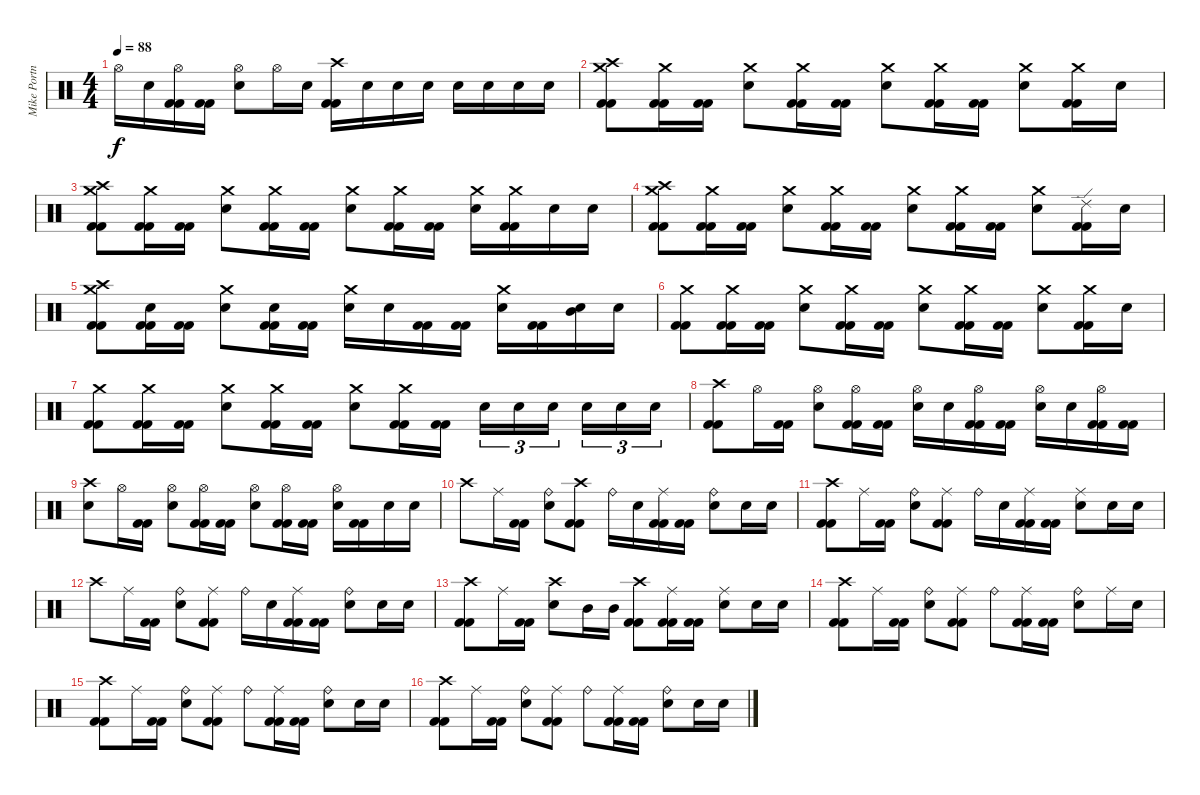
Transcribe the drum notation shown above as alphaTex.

\track ("Mike Portnoy" "Mike Portn") {instrument percussion}
\staff {score}
\articulation defaults
\ts (4 4)
\tempo 88
\clef neutral
\ks c "Hi-Hat (open)".16{dy f} "Snare (hit) 2".16
("Hi-Hat (open)" "Kick (hit) 2" "Kick (hit) 2").16 ("Kick (hit) 2" "Kick (hit) 2").16 ("Hi-Hat (open)" "Snare (hit) 2").8 "Hi-Hat (open)".16 "Snare (hit) 2".16 ("Crash high (hit)" "Kick (hit) 2" "Kick (hit) 2").16 "Snare (hit) 2".16 "Snare (hit) 2".16 "Snare (hit) 2".16 "Snare (hit) 2".16 "Snare (hit) 2".16 "Snare (hit) 2".16 "Snare (hit) 2".16 |
("Crash medium (hit)" "Crash high (hit)" "Kick (hit) 2" "Kick (hit) 2").8 ("Crash medium (hit)" "Kick (hit) 2" "Kick (hit) 2").16 ("Kick (hit) 2" "Kick (hit) 2").16 ("Crash medium (hit)" "Snare (hit) 2").8 ("Crash medium (hit)" "Kick (hit) 2" "Kick (hit) 2").16 ("Kick (hit) 2" "Kick (hit) 2").16 ("Crash medium (hit)" "Snare (hit) 2").8 ("Crash medium (hit)" "Kick (hit) 2" "Kick (hit) 2").16 ("Kick (hit) 2" "Kick (hit) 2").16 ("Crash medium (hit)" "Snare (hit) 2").8 ("Crash medium (hit)" "Kick (hit) 2" "Kick (hit) 2").16 "Snare (hit) 2".16 |
("Crash medium (hit)" "Crash high (hit)" "Kick (hit) 2" "Kick (hit) 2").8 ("Crash medium (hit)" "Kick (hit) 2" "Kick (hit) 2").16 ("Kick (hit) 2" "Kick (hit) 2").16 ("Crash medium (hit)" "Snare (hit) 2").8 ("Crash medium (hit)" "Kick (hit) 2" "Kick (hit) 2").16 ("Kick (hit) 2" "Kick (hit) 2").16 ("Crash medium (hit)" "Snare (hit) 2").8 ("Crash medium (hit)" "Kick (hit) 2" "Kick (hit) 2").16 ("Kick (hit) 2" "Kick (hit) 2").16 ("Crash medium (hit)" "Snare (hit) 2").16 ("Crash medium (hit)" "Kick (hit) 2" "Kick (hit) 2").16 "Snare (hit) 2".16 "Snare (hit) 2".16 |
("Crash medium (hit)" "Crash high (hit)" "Kick (hit) 2" "Kick (hit) 2").8 ("Crash medium (hit)" "Kick (hit) 2" "Kick (hit) 2").16 ("Kick (hit) 2" "Kick (hit) 2").16 ("Crash medium (hit)" "Snare (hit) 2").8 ("Crash medium (hit)" "Kick (hit) 2" "Kick (hit) 2").16 ("Kick (hit) 2" "Kick (hit) 2").16 ("Crash medium (hit)" "Snare (hit) 2").8 ("Crash medium (hit)" "Kick (hit) 2" "Kick (hit) 2").16 ("Kick (hit) 2" "Kick (hit) 2").16 ("Crash medium (hit)" "Snare (hit) 2").8 ("Ride (edge) 2" "Kick (hit) 2" "Kick (hit) 2").16 "Snare (hit) 2".16 |
("Crash medium (hit)" "Crash high (hit)" "Kick (hit) 2" "Kick (hit) 2").8 ("Snare (hit) 2" "Kick (hit) 2" "Kick (hit) 2").16 ("Kick (hit) 2" "Kick (hit) 2").16 ("Crash medium (hit)" "Snare (hit) 2").8 ("Snare (hit) 2" "Kick (hit) 2" "Kick (hit) 2").16 ("Kick (hit) 2" "Kick (hit) 2").16 ("Crash medium (hit)" "Snare (hit) 2").16 "Snare (hit) 2".16 ("Kick (hit) 2" "Kick (hit) 2").16 ("Kick (hit) 2" "Kick (hit) 2").16 ("Crash medium (hit)" "Snare (hit) 2").16 ("Kick (hit) 2" "Kick (hit) 2").16 ("Snare (hit) 2" "Mid Tom (hit)").16 "Snare (hit) 2".16 |
("Crash medium (hit)" "Kick (hit) 2" "Kick (hit) 2").8 ("Crash medium (hit)" "Kick (hit) 2" "Kick (hit) 2").16 ("Kick (hit) 2" "Kick (hit) 2").16 ("Crash medium (hit)" "Snare (hit) 2").8 ("Crash medium (hit)" "Kick (hit) 2" "Kick (hit) 2").16 ("Kick (hit) 2" "Kick (hit) 2").16 ("Crash medium (hit)" "Snare (hit) 2").8 ("Crash medium (hit)" "Kick (hit) 2" "Kick (hit) 2").16 ("Kick (hit) 2" "Kick (hit) 2").16 ("Crash medium (hit)" "Snare (hit) 2").8 ("Crash medium (hit)" "Kick (hit) 2" "Kick (hit) 2").16 "Snare (hit) 2".16 |
("Crash medium (hit)" "Kick (hit) 2" "Kick (hit) 2").8 ("Crash medium (hit)" "Kick (hit) 2" "Kick (hit) 2").16 ("Kick (hit) 2" "Kick (hit) 2").16 ("Crash medium (hit)" "Snare (hit) 2").8 ("Crash medium (hit)" "Kick (hit) 2" "Kick (hit) 2").16 ("Kick (hit) 2" "Kick (hit) 2").16 ("Crash medium (hit)" "Snare (hit) 2").8 ("Crash medium (hit)" "Kick (hit) 2" "Kick (hit) 2").16 ("Kick (hit) 2" "Kick (hit) 2").16 "Snare (hit) 2".16{tu (3 2)} "Snare (hit) 2".16{tu (3 2)} "Snare (hit) 2".16{tu (3 2)} "Snare (hit) 2".16{tu (3 2)} "Snare (hit) 2".16{tu (3 2)} "Snare (hit) 2".16{tu (3 2)} |
("Crash high (hit)" "Kick (hit) 2" "Kick (hit) 2").8 "Hi-Hat (open)".16 ("Kick (hit) 2" "Kick (hit) 2").16 ("Hi-Hat (open)" "Snare (hit) 2").8 ("Hi-Hat (open)" "Kick (hit) 2" "Kick (hit) 2").16 ("Kick (hit) 2" "Kick (hit) 2").16 ("Hi-Hat (open)" "Snare (hit) 2").16 "Snare (hit) 2".16 ("Hi-Hat (open)" "Kick (hit) 2" "Kick (hit) 2").16 ("Kick (hit) 2" "Kick (hit) 2").16 ("Hi-Hat (open)" "Snare (hit) 2").16 "Snare (hit) 2".16 ("Hi-Hat (open)" "Kick (hit) 2" "Kick (hit) 2").16 ("Kick (hit) 2" "Kick (hit) 2").16 |
("Crash high (hit)" "Snare (hit) 2").8 "Hi-Hat (open)".16 ("Kick (hit) 2" "Kick (hit) 2").16 ("Hi-Hat (open)" "Snare (hit) 2").8 ("Hi-Hat (open)" "Kick (hit) 2" "Kick (hit) 2").16 ("Kick (hit) 2" "Kick (hit) 2").16 ("Hi-Hat (open)" "Snare (hit) 2").8 ("Hi-Hat (open)" "Kick (hit) 2" "Kick (hit) 2").16 ("Kick (hit) 2" "Kick (hit) 2").16 ("Hi-Hat (open)" "Snare (hit) 2").16 ("Kick (hit) 2" "Kick (hit) 2").16 "Snare (hit) 2".16 "Snare (hit) 2".16 |
"Crash high (hit)".8 "Ride (middle)".16 ("Kick (hit) 2" "Kick (hit) 2").16 ("Ride (bell)" "Snare (hit) 2").8 ("Crash high (hit)" "Kick (hit) 2" "Kick (hit) 2").8 "Ride (bell)".16 "Snare (hit) 2".16 ("Ride (middle)" "Kick (hit) 2" "Kick (hit) 2").16 ("Kick (hit) 2" "Kick (hit) 2").16 ("Ride (bell)" "Snare (hit) 2").8 "Snare (hit) 2".16 "Snare (hit) 2".16 |
("Crash high (hit)" "Kick (hit) 2" "Kick (hit) 2").8 "Ride (middle)".16 ("Kick (hit) 2" "Kick (hit) 2").16 ("Ride (bell)" "Snare (hit) 2").8 ("Ride (middle)" "Kick (hit) 2" "Kick (hit) 2").8 "Ride (bell)".16 "Snare (hit) 2".16 ("Ride (middle)" "Kick (hit) 2" "Kick (hit) 2").16 ("Kick (hit) 2" "Kick (hit) 2").16 ("Ride (middle)" "Snare (hit) 2").8 "Snare (hit) 2".16 "Snare (hit) 2".16 |
"Crash high (hit)".8 "Ride (middle)".16 ("Kick (hit) 2" "Kick (hit) 2").16 ("Ride (bell)" "Snare (hit) 2").8 ("Ride (middle)" "Kick (hit) 2" "Kick (hit) 2").8 "Ride (bell)".16 "Snare (hit) 2".16 ("Ride (middle)" "Kick (hit) 2" "Kick (hit) 2").16 ("Kick (hit) 2" "Kick (hit) 2").16 ("Ride (bell)" "Snare (hit) 2").8 "Snare (hit) 2".16 "Snare (hit) 2".16 |
("Crash high (hit)" "Kick (hit) 2" "Kick (hit) 2").8 "Ride (middle)".16 ("Kick (hit) 2" "Kick (hit) 2").16 ("Crash high (hit)" "Snare (hit) 2").8 "Mid Tom (hit)".16 "Mid Tom (hit)".16 ("Crash high (hit)" "Kick (hit) 2" "Kick (hit) 2").8 ("Ride (middle)" "Kick (hit) 2" "Kick (hit) 2").16 ("Kick (hit) 2" "Kick (hit) 2").16 ("Ride (middle)" "Snare (hit) 2").8 "Snare (hit) 2".16 "Snare (hit) 2".16 |
("Crash high (hit)" "Kick (hit) 2" "Kick (hit) 2").8 "Ride (middle)".16 ("Kick (hit) 2" "Kick (hit) 2").16 ("Ride (bell)" "Snare (hit) 2").8 ("Ride (middle)" "Kick (hit) 2" "Kick (hit) 2").8 "Ride (bell)".8 ("Ride (middle)" "Kick (hit) 2" "Kick (hit) 2").16 ("Kick (hit) 2" "Kick (hit) 2").16 ("Ride (bell)" "Snare (hit) 2").8 "Ride (middle)".16 "Snare (hit) 2".16 |
("Crash high (hit)" "Kick (hit) 2" "Kick (hit) 2").8 "Ride (middle)".16 ("Kick (hit) 2" "Kick (hit) 2").16 ("Ride (bell)" "Snare (hit) 2").8 ("Ride (middle)" "Kick (hit) 2" "Kick (hit) 2").8 "Ride (bell)".8 ("Ride (middle)" "Kick (hit) 2" "Kick (hit) 2").16 ("Kick (hit) 2" "Kick (hit) 2").16 ("Ride (bell)" "Snare (hit) 2").8 "Snare (hit) 2".16 "Snare (hit) 2".16 |
("Crash high (hit)" "Kick (hit) 2" "Kick (hit) 2").8 "Ride (middle)".16 ("Kick (hit) 2" "Kick (hit) 2").16 ("Ride (bell)" "Snare (hit) 2").8 ("Ride (middle)" "Kick (hit) 2" "Kick (hit) 2").8 "Ride (bell)".8 ("Ride (middle)" "Kick (hit) 2" "Kick (hit) 2").16 ("Kick (hit) 2" "Kick (hit) 2").16 ("Ride (bell)" "Snare (hit) 2").8 "Snare (hit) 2".16 "Snare (hit) 2".16
